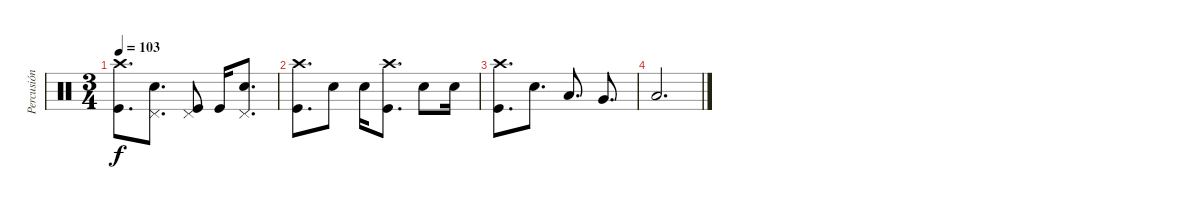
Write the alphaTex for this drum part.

\track ("Percusión" "Percusión") {instrument percussion}
\staff {score}
\articulation defaults
\ts (3 4)
\tempo 103
\clef neutral
\ks c
("Crash high (hit)" "Kick (hit)").8{d dy f} ("Pedal Hi-Hat (hit)" "Snare (hit) 2").8{d} ("Pedal Hi-Hat (hit)" "Kick (hit)").8 "Kick (hit)".16 ("Pedal Hi-Hat (hit)" "Snare (hit) 2").8{d} |
("Crash high (hit)" "Kick (hit)").8{d} "Snare (hit) 2".8 "Snare (hit) 2".16 ("Crash high (hit)" "Kick (hit)").8{d} "Snare (hit) 2".8 "Snare (hit) 2".16 |
("Crash high (hit)" "Kick (hit)").8{d} "Snare (hit) 2".8{d} "Low Tom (hit)".8{d} "Very Low Tom (hit)".8{d} |
"Low Floor Tom (hit)".2{d}
